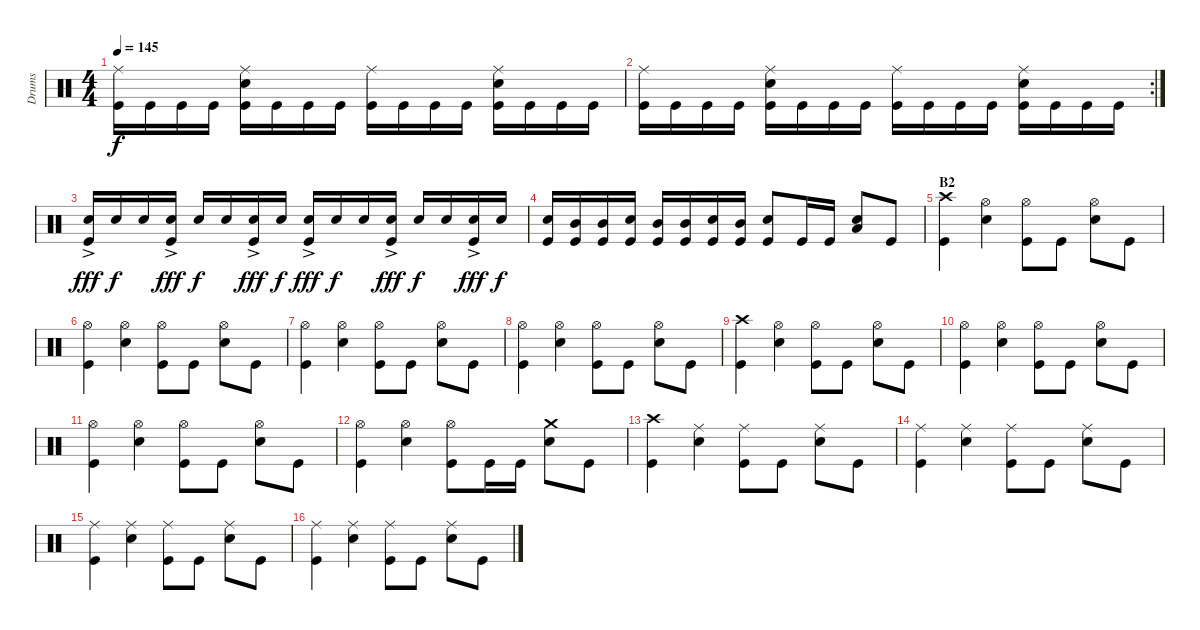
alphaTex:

\track ("Drums" "Drums") {instrument percussion}
\staff {score}
\articulation defaults
\ts (4 4)
\tempo 145
\clef neutral
\ks c
("Ride (middle)" "Kick (hit)").16{dy f} "Kick (hit)".16 "Kick (hit)".16 "Kick (hit)".16 ("Ride (middle)" "Snare (hit) 2" "Kick (hit)").16 "Kick (hit)".16 "Kick (hit)".16 "Kick (hit)".16 ("Ride (middle)" "Kick (hit)").16 "Kick (hit)".16 "Kick (hit)".16 "Kick (hit)".16 ("Ride (middle)" "Snare (hit) 2" "Kick (hit)").16 "Kick (hit)".16 "Kick (hit)".16 "Kick (hit)".16 |
\rc 2
("Ride (middle)" "Kick (hit)").16 "Kick (hit)".16 "Kick (hit)".16 "Kick (hit)".16 ("Ride (middle)" "Snare (hit) 2" "Kick (hit)").16 "Kick (hit)".16 "Kick (hit)".16 "Kick (hit)".16 ("Ride (middle)" "Kick (hit)").16 "Kick (hit)".16 "Kick (hit)".16 "Kick (hit)".16 ("Ride (middle)" "Snare (hit) 2" "Kick (hit)").16 "Kick (hit)".16 "Kick (hit)".16 "Kick (hit)".16 |
("Snare (hit) 2"{ac} "Kick (hit)").16{dy fff} "Snare (hit) 2".16{dy f} "Snare (hit) 2".16 ("Snare (hit) 2"{ac} "Kick (hit)").16{dy fff} "Snare (hit) 2".16{dy f} "Snare (hit) 2".16 ("Snare (hit) 2"{ac} "Kick (hit)").16{dy fff} "Snare (hit) 2".16{dy f} ("Snare (hit) 2"{ac} "Kick (hit)").16{dy fff} "Snare (hit) 2".16{dy f} "Snare (hit) 2".16 ("Snare (hit) 2"{ac} "Kick (hit)").16{dy fff} "Snare (hit) 2".16{dy f} "Snare (hit) 2".16 ("Snare (hit) 2"{ac} "Kick (hit)").16{dy fff} "Snare (hit) 2".16{dy f} |
("Snare (hit) 2" "Kick (hit)").16 ("Mid Tom (hit)" "Kick (hit)").16 ("Mid Tom (hit)" "Kick (hit)").16 ("Snare (hit) 2" "Kick (hit)").16 ("Mid Tom (hit)" "Kick (hit)").16 ("Mid Tom (hit)" "Kick (hit)").16 ("Snare (hit) 2" "Kick (hit)").16 ("Mid Tom (hit)" "Kick (hit)").16 ("Snare (hit) 2" "Kick (hit)").8 "Kick (hit)".16 "Kick (hit)".16 ("Low Floor Tom (hit)" "Snare (hit) 2").8 "Kick (hit)".8 |
\section ("" "B2")
("Crash high (hit)" "Kick (hit)").4 ("Hi-Hat (open)" "Snare (hit) 2").4 ("Hi-Hat (open)" "Kick (hit)").8 "Kick (hit)".8 ("Hi-Hat (open)" "Snare (hit) 2").8 "Kick (hit)".8 |
("Hi-Hat (open)" "Kick (hit)").4 ("Hi-Hat (open)" "Snare (hit) 2").4 ("Hi-Hat (open)" "Kick (hit)").8 "Kick (hit)".8 ("Hi-Hat (open)" "Snare (hit) 2").8 "Kick (hit)".8 |
("Hi-Hat (open)" "Kick (hit)").4 ("Hi-Hat (open)" "Snare (hit) 2").4 ("Hi-Hat (open)" "Kick (hit)").8 "Kick (hit)".8 ("Hi-Hat (open)" "Snare (hit) 2").8 "Kick (hit)".8 |
("Hi-Hat (open)" "Kick (hit)").4 ("Hi-Hat (open)" "Snare (hit) 2").4 ("Hi-Hat (open)" "Kick (hit)").8 "Kick (hit)".8 ("Hi-Hat (open)" "Snare (hit) 2").8 "Kick (hit)".8 |
("Crash high (hit)" "Kick (hit)").4 ("Hi-Hat (open)" "Snare (hit) 2").4 ("Hi-Hat (open)" "Kick (hit)").8 "Kick (hit)".8 ("Hi-Hat (open)" "Snare (hit) 2").8 "Kick (hit)".8 |
("Hi-Hat (open)" "Kick (hit)").4 ("Hi-Hat (open)" "Snare (hit) 2").4 ("Hi-Hat (open)" "Kick (hit)").8 "Kick (hit)".8 ("Hi-Hat (open)" "Snare (hit) 2").8 "Kick (hit)".8 |
("Hi-Hat (open)" "Kick (hit)").4 ("Hi-Hat (open)" "Snare (hit) 2").4 ("Hi-Hat (open)" "Kick (hit)").8 "Kick (hit)".8 ("Hi-Hat (open)" "Snare (hit) 2").8 "Kick (hit)".8 |
("Hi-Hat (open)" "Kick (hit)").4 ("Hi-Hat (open)" "Snare (hit) 2").4 ("Hi-Hat (open)" "Kick (hit)").8 "Kick (hit)".16 "Kick (hit)".16 ("Crash medium (hit)" "Snare (hit) 2").8 "Kick (hit)".8 |
("Crash high (hit)" "Kick (hit)").4 ("Ride (middle)" "Snare (hit) 2").4 ("Ride (middle)" "Kick (hit)").8 "Kick (hit)".8 ("Ride (middle)" "Snare (hit) 2").8 "Kick (hit)".8 |
("Ride (middle)" "Kick (hit)").4 ("Ride (middle)" "Snare (hit) 2").4 ("Ride (middle)" "Kick (hit)").8 "Kick (hit)".8 ("Ride (middle)" "Snare (hit) 2").8 "Kick (hit)".8 |
("Ride (middle)" "Kick (hit)").4 ("Ride (middle)" "Snare (hit) 2").4 ("Ride (middle)" "Kick (hit)").8 "Kick (hit)".8 ("Ride (middle)" "Snare (hit) 2").8 "Kick (hit)".8 |
("Ride (middle)" "Kick (hit)").4 ("Ride (middle)" "Snare (hit) 2").4 ("Ride (middle)" "Kick (hit)").8 "Kick (hit)".8 ("Ride (middle)" "Snare (hit) 2").8 "Kick (hit)".8
